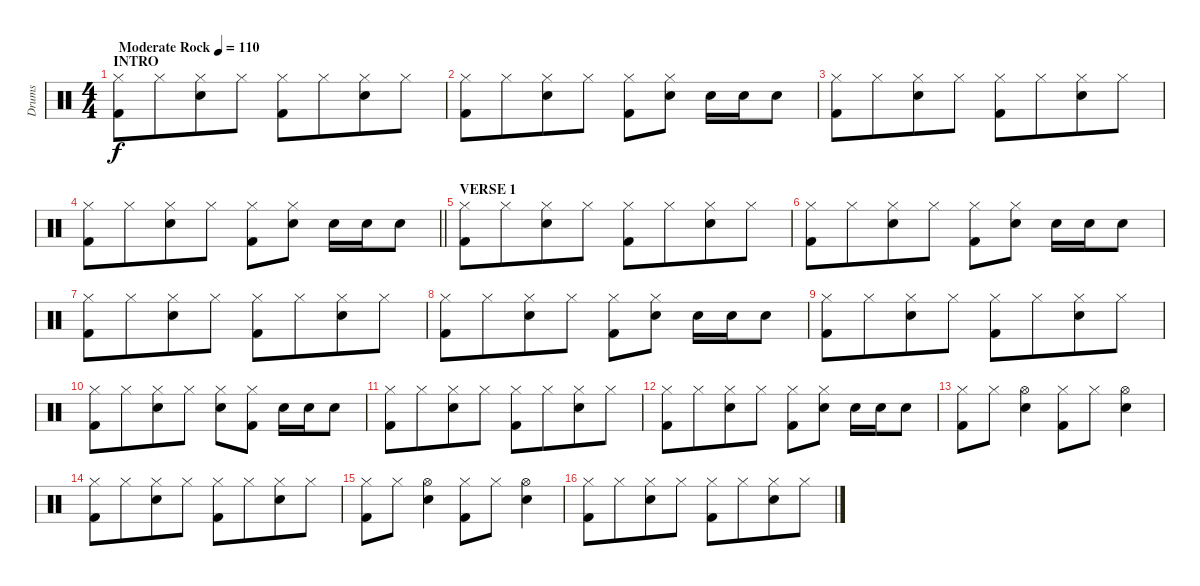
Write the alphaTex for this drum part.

\track ("Drums" "Drums") {instrument percussion}
\staff {score}
\articulation defaults
\ts (4 4)
\section ("" "INTRO")
\tempo (110 "Moderate Rock")
\clef neutral
\ks c
("Hi-Hat (closed)" "Kick (hit) 2").8{dy f} "Hi-Hat (closed)".8{beam merge} ("Hi-Hat (closed)" "Electric Snare (hit)").8 "Hi-Hat (closed)".8 ("Hi-Hat (closed)" "Kick (hit) 2").8 "Hi-Hat (closed)".8{beam merge} ("Hi-Hat (closed)" "Electric Snare (hit)").8 "Hi-Hat (closed)".8 |
("Hi-Hat (closed)" "Kick (hit) 2").8 "Hi-Hat (closed)".8{beam merge} ("Hi-Hat (closed)" "Electric Snare (hit)").8 "Hi-Hat (closed)".8 ("Hi-Hat (closed)" "Kick (hit) 2").8 ("Hi-Hat (closed)" "Electric Snare (hit)").8 "Electric Snare (hit)".16 "Electric Snare (hit)".16 "Electric Snare (hit)".8 |
("Hi-Hat (closed)" "Kick (hit) 2").8 "Hi-Hat (closed)".8{beam merge} ("Hi-Hat (closed)" "Electric Snare (hit)").8 "Hi-Hat (closed)".8 ("Hi-Hat (closed)" "Kick (hit) 2").8 "Hi-Hat (closed)".8{beam merge} ("Hi-Hat (closed)" "Electric Snare (hit)").8 "Hi-Hat (closed)".8 |
\barLineRight lightlight
("Hi-Hat (closed)" "Kick (hit) 2").8 "Hi-Hat (closed)".8{beam merge} ("Hi-Hat (closed)" "Electric Snare (hit)").8 "Hi-Hat (closed)".8 ("Hi-Hat (closed)" "Kick (hit) 2").8 ("Hi-Hat (closed)" "Electric Snare (hit)").8 "Electric Snare (hit)".16 "Electric Snare (hit)".16 "Electric Snare (hit)".8 |
\section ("" "VERSE 1")
("Hi-Hat (closed)" "Kick (hit) 2").8 "Hi-Hat (closed)".8{beam merge} ("Hi-Hat (closed)" "Electric Snare (hit)").8 "Hi-Hat (closed)".8 ("Hi-Hat (closed)" "Kick (hit) 2").8 "Hi-Hat (closed)".8{beam merge} ("Hi-Hat (closed)" "Electric Snare (hit)").8 "Hi-Hat (closed)".8 |
("Hi-Hat (closed)" "Kick (hit) 2").8 "Hi-Hat (closed)".8{beam merge} ("Hi-Hat (closed)" "Electric Snare (hit)").8 "Hi-Hat (closed)".8 ("Hi-Hat (closed)" "Kick (hit) 2").8 ("Hi-Hat (closed)" "Electric Snare (hit)").8 "Electric Snare (hit)".16 "Electric Snare (hit)".16 "Electric Snare (hit)".8 |
("Hi-Hat (closed)" "Kick (hit) 2").8 "Hi-Hat (closed)".8{beam merge} ("Hi-Hat (closed)" "Electric Snare (hit)").8 "Hi-Hat (closed)".8 ("Hi-Hat (closed)" "Kick (hit) 2").8 "Hi-Hat (closed)".8{beam merge} ("Hi-Hat (closed)" "Electric Snare (hit)").8 "Hi-Hat (closed)".8 |
("Hi-Hat (closed)" "Kick (hit) 2").8 "Hi-Hat (closed)".8{beam merge} ("Hi-Hat (closed)" "Electric Snare (hit)").8 "Hi-Hat (closed)".8 ("Hi-Hat (closed)" "Kick (hit) 2").8 ("Hi-Hat (closed)" "Electric Snare (hit)").8 "Electric Snare (hit)".16 "Electric Snare (hit)".16 "Electric Snare (hit)".8 |
("Hi-Hat (closed)" "Kick (hit) 2").8 "Hi-Hat (closed)".8{beam merge} ("Hi-Hat (closed)" "Electric Snare (hit)").8 "Hi-Hat (closed)".8 ("Hi-Hat (closed)" "Kick (hit) 2").8 "Hi-Hat (closed)".8{beam merge} ("Hi-Hat (closed)" "Electric Snare (hit)").8 "Hi-Hat (closed)".8 |
("Hi-Hat (closed)" "Kick (hit) 2").8 "Hi-Hat (closed)".8{beam merge} ("Hi-Hat (closed)" "Electric Snare (hit)").8 "Hi-Hat (closed)".8 ("Hi-Hat (closed)" "Electric Snare (hit)").8 ("Hi-Hat (closed)" "Kick (hit) 2").8 "Electric Snare (hit)".16 "Electric Snare (hit)".16 "Electric Snare (hit)".8 |
("Hi-Hat (closed)" "Kick (hit) 2").8 "Hi-Hat (closed)".8{beam merge} ("Hi-Hat (closed)" "Electric Snare (hit)").8 "Hi-Hat (closed)".8 ("Hi-Hat (closed)" "Kick (hit) 2").8 "Hi-Hat (closed)".8{beam merge} ("Hi-Hat (closed)" "Electric Snare (hit)").8 "Hi-Hat (closed)".8 |
("Hi-Hat (closed)" "Kick (hit) 2").8 "Hi-Hat (closed)".8{beam merge} ("Hi-Hat (closed)" "Electric Snare (hit)").8 "Hi-Hat (closed)".8 ("Hi-Hat (closed)" "Kick (hit) 2").8 ("Hi-Hat (closed)" "Electric Snare (hit)").8 "Electric Snare (hit)".16 "Electric Snare (hit)".16 "Electric Snare (hit)".8 |
("Hi-Hat (closed)" "Kick (hit) 2").8 "Hi-Hat (closed)".8 ("Hi-Hat (open)" "Electric Snare (hit)").4 ("Hi-Hat (closed)" "Kick (hit) 2").8 "Hi-Hat (closed)".8 ("Hi-Hat (open)" "Electric Snare (hit)").4 |
("Hi-Hat (closed)" "Kick (hit) 2").8 "Hi-Hat (closed)".8{beam merge} ("Hi-Hat (closed)" "Electric Snare (hit)").8 "Hi-Hat (closed)".8 ("Hi-Hat (closed)" "Kick (hit) 2").8 "Hi-Hat (closed)".8{beam merge} ("Hi-Hat (closed)" "Electric Snare (hit)").8 "Hi-Hat (closed)".8 |
("Hi-Hat (closed)" "Kick (hit) 2").8 "Hi-Hat (closed)".8 ("Hi-Hat (open)" "Electric Snare (hit)").4 ("Hi-Hat (closed)" "Kick (hit) 2").8 "Hi-Hat (closed)".8 ("Hi-Hat (open)" "Electric Snare (hit)").4 |
("Hi-Hat (closed)" "Kick (hit) 2").8 "Hi-Hat (closed)".8{beam merge} ("Hi-Hat (closed)" "Electric Snare (hit)").8 "Hi-Hat (closed)".8 ("Hi-Hat (closed)" "Kick (hit) 2").8 "Hi-Hat (closed)".8{beam merge} ("Hi-Hat (closed)" "Electric Snare (hit)").8 "Hi-Hat (closed)".8
